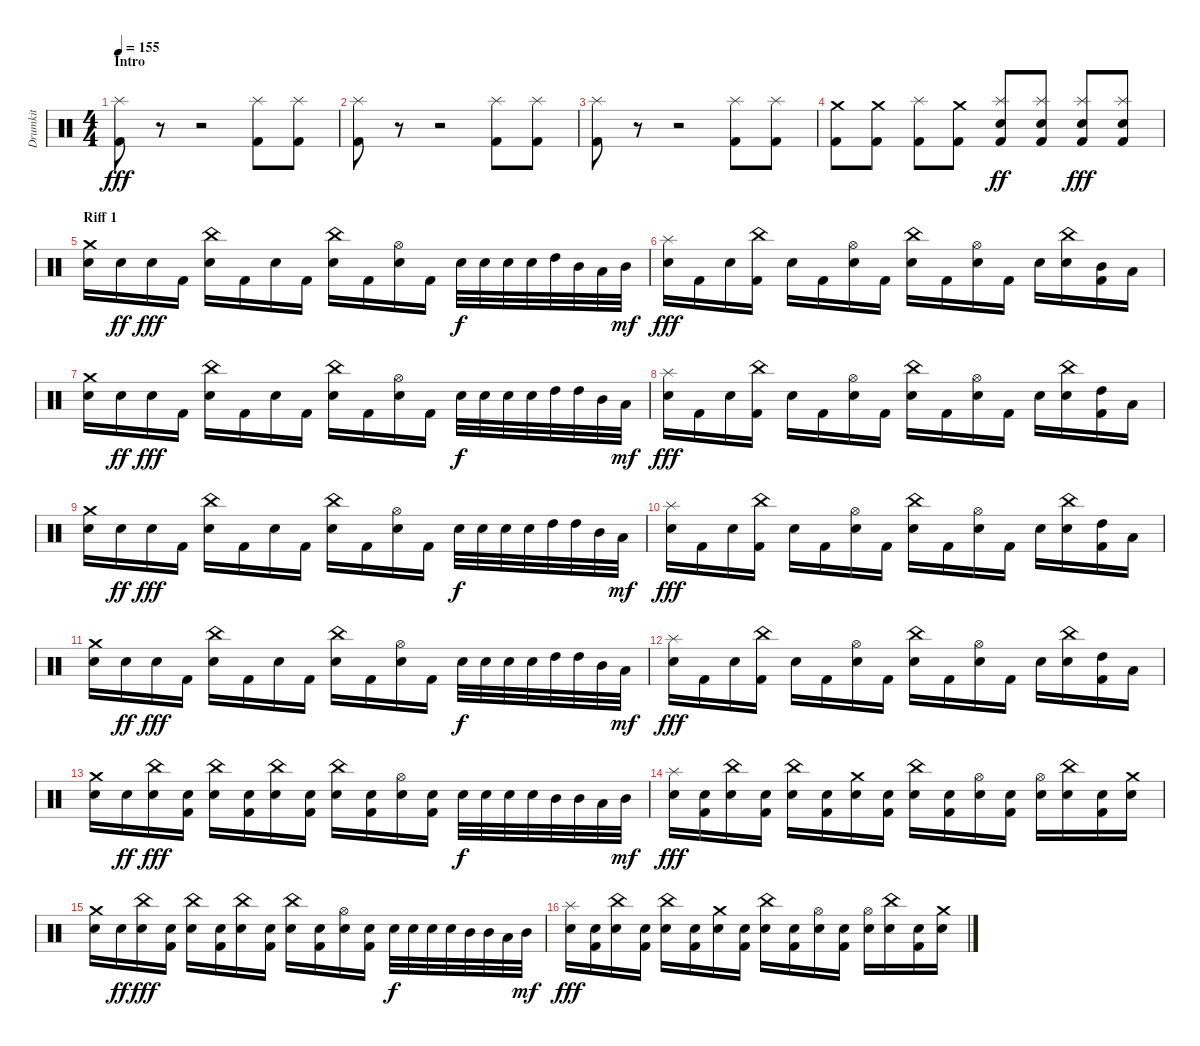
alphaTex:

\track ("Drumkit" "Drumkit") {instrument percussion}
\staff {score}
\articulation defaults
\ts (4 4)
\section ("" "Intro")
\tempo 155
\clef neutral
\ks c
("Kick (hit) 2" "Splash (hit)").8{dy fff} r.8 r.2 ("Kick (hit) 2" "Splash (hit)").8 ("Kick (hit) 2" "Splash (hit)").8 |
("Kick (hit) 2" "Splash (hit)").8 r.8 r.2 ("Kick (hit) 2" "Splash (hit)").8 ("Kick (hit) 2" "Splash (hit)").8 |
("Kick (hit) 2" "Splash (hit)").8 r.8 r.2 ("Kick (hit) 2" "Splash (hit)").8 ("Kick (hit) 2" "Splash (hit)").8 |
("Kick (hit) 2" "Crash medium (hit)").8 ("Kick (hit) 2" "Crash medium (hit)").8 ("Kick (hit) 2" "Splash (hit)").8 ("Kick (hit) 2" "Crash medium (hit)").8 ("Kick (hit) 2" "Snare (hit) 2" "Splash (hit)").8{dy ff} ("Kick (hit) 2" "Snare (hit) 2" "Splash (hit)").8 ("Kick (hit) 2" "Snare (hit) 2" "Splash (hit)").8{dy fff} ("Kick (hit) 2" "Snare (hit) 2" "Splash (hit)").8 |
\section ("" "Riff 1")
("Snare (hit) 2" "Crash medium (hit)").16 "Snare (hit) 2".16{dy ff} "Snare (hit) 2".16{dy fff} "Kick (hit) 2".16 ("Snare (hit) 2" "China (hit)").16 "Kick (hit) 2".16 "Snare (hit) 2".16 "Kick (hit) 2".16 ("Snare (hit) 2" "China (hit)").16 "Kick (hit) 2".16 ("Snare (hit) 2" "Hi-Hat (open)").16 "Kick (hit) 2".16 "Snare (hit) 2".32{dy f} "Snare (hit) 2".32 "Snare (hit) 2".32 "Snare (hit) 2".32 "High Tom (hit)".32 "Mid Tom (hit)".32 "Low Tom (hit)".32 "Mid Tom (hit)".32{dy mf} |
("Snare (hit) 2" "Splash (hit)").16{dy fff} "Kick (hit) 2".16 "Snare (hit) 2".16 ("Kick (hit) 2" "China (hit)").16 "Snare (hit) 2".16 "Kick (hit) 2".16 ("Snare (hit) 2" "Hi-Hat (open)").16 "Kick (hit) 2".16 ("Snare (hit) 2" "China (hit)").16 "Kick (hit) 2".16 ("Snare (hit) 2" "Hi-Hat (open)").16 "Kick (hit) 2".16 "Snare (hit) 2".16 ("Snare (hit) 2" "China (hit)").16 ("Kick (hit) 2" "Mid Tom (hit)").16 "Low Tom (hit)".16 |
("Snare (hit) 2" "Crash medium (hit)").16 "Snare (hit) 2".16{dy ff} "Snare (hit) 2".16{dy fff} "Kick (hit) 2".16 ("Snare (hit) 2" "China (hit)").16 "Kick (hit) 2".16 "Snare (hit) 2".16 "Kick (hit) 2".16 ("Snare (hit) 2" "China (hit)").16 "Kick (hit) 2".16 ("Snare (hit) 2" "Hi-Hat (open)").16 "Kick (hit) 2".16 "Snare (hit) 2".32{dy f} "Snare (hit) 2".32 "Snare (hit) 2".32 "Snare (hit) 2".32 "High Tom (hit)".32 "High Tom (hit)".32 "Mid Tom (hit)".32 "Low Tom (hit)".32{dy mf} |
("Snare (hit) 2" "Splash (hit)").16{dy fff} "Kick (hit) 2".16 "Snare (hit) 2".16 ("Kick (hit) 2" "China (hit)").16 "Snare (hit) 2".16 "Kick (hit) 2".16 ("Snare (hit) 2" "Hi-Hat (open)").16 "Kick (hit) 2".16 ("Snare (hit) 2" "China (hit)").16 "Kick (hit) 2".16 ("Snare (hit) 2" "Hi-Hat (open)").16 "Kick (hit) 2".16 "Snare (hit) 2".16 ("Snare (hit) 2" "China (hit)").16 ("Kick (hit) 2" "High Tom (hit)").16 "Low Tom (hit)".16 |
("Snare (hit) 2" "Crash medium (hit)").16 "Snare (hit) 2".16{dy ff} "Snare (hit) 2".16{dy fff} "Kick (hit) 2".16 ("Snare (hit) 2" "China (hit)").16 "Kick (hit) 2".16 "Snare (hit) 2".16 "Kick (hit) 2".16 ("Snare (hit) 2" "China (hit)").16 "Kick (hit) 2".16 ("Snare (hit) 2" "Hi-Hat (open)").16 "Kick (hit) 2".16 "Snare (hit) 2".32{dy f} "Snare (hit) 2".32 "Snare (hit) 2".32 "Snare (hit) 2".32 "High Tom (hit)".32 "High Tom (hit)".32 "Mid Tom (hit)".32 "Low Tom (hit)".32{dy mf} |
("Snare (hit) 2" "Splash (hit)").16{dy fff} "Kick (hit) 2".16 "Snare (hit) 2".16 ("Kick (hit) 2" "China (hit)").16 "Snare (hit) 2".16 "Kick (hit) 2".16 ("Snare (hit) 2" "Hi-Hat (open)").16 "Kick (hit) 2".16 ("Snare (hit) 2" "China (hit)").16 "Kick (hit) 2".16 ("Snare (hit) 2" "Hi-Hat (open)").16 "Kick (hit) 2".16 "Snare (hit) 2".16 ("Snare (hit) 2" "China (hit)").16 ("Kick (hit) 2" "High Tom (hit)").16 "Low Tom (hit)".16 |
("Snare (hit) 2" "Crash medium (hit)").16 "Snare (hit) 2".16{dy ff} "Snare (hit) 2".16{dy fff} "Kick (hit) 2".16 ("Snare (hit) 2" "China (hit)").16 "Kick (hit) 2".16 "Snare (hit) 2".16 "Kick (hit) 2".16 ("Snare (hit) 2" "China (hit)").16 "Kick (hit) 2".16 ("Snare (hit) 2" "Hi-Hat (open)").16 "Kick (hit) 2".16 "Snare (hit) 2".32{dy f} "Snare (hit) 2".32 "Snare (hit) 2".32 "Snare (hit) 2".32 "High Tom (hit)".32 "High Tom (hit)".32 "Mid Tom (hit)".32 "Low Tom (hit)".32{dy mf} |
("Snare (hit) 2" "Splash (hit)").16{dy fff} "Kick (hit) 2".16 "Snare (hit) 2".16 ("Kick (hit) 2" "China (hit)").16 "Snare (hit) 2".16 "Kick (hit) 2".16 ("Snare (hit) 2" "Hi-Hat (open)").16 "Kick (hit) 2".16 ("Snare (hit) 2" "China (hit)").16 "Kick (hit) 2".16 ("Snare (hit) 2" "Hi-Hat (open)").16 "Kick (hit) 2".16 "Snare (hit) 2".16 ("Snare (hit) 2" "China (hit)").16 ("Kick (hit) 2" "High Tom (hit)").16 "Low Tom (hit)".16 |
("Snare (hit) 2" "Crash medium (hit)").16 "Snare (hit) 2".16{dy ff} ("Snare (hit) 2" "China (hit)").16{dy fff} ("Kick (hit) 2" "Snare (hit) 2").16 ("Snare (hit) 2" "China (hit)").16 ("Kick (hit) 2" "Snare (hit) 2").16 ("Snare (hit) 2" "China (hit)").16 ("Kick (hit) 2" "Snare (hit) 2").16 ("Snare (hit) 2" "China (hit)").16 ("Kick (hit) 2" "Snare (hit) 2").16 ("Snare (hit) 2" "Hi-Hat (open)").16 ("Kick (hit) 2" "Snare (hit) 2").16 "Snare (hit) 2".32{dy f} "Snare (hit) 2".32 "Snare (hit) 2".32 "Snare (hit) 2".32 "Mid Tom (hit)".32 "Mid Tom (hit)".32 "Low Tom (hit)".32 "Mid Tom (hit)".32{dy mf} |
("Snare (hit) 2" "Splash (hit)").16{dy fff} ("Kick (hit) 2" "Snare (hit) 2").16 ("Snare (hit) 2" "China (hit)").16 ("Kick (hit) 2" "Snare (hit) 2").16 ("Snare (hit) 2" "China (hit)").16 ("Kick (hit) 2" "Snare (hit) 2").16 ("Snare (hit) 2" "Crash medium (hit)").16 ("Kick (hit) 2" "Snare (hit) 2").16 ("Snare (hit) 2" "China (hit)").16 ("Kick (hit) 2" "Snare (hit) 2").16 ("Snare (hit) 2" "Hi-Hat (open)").16 ("Kick (hit) 2" "Snare (hit) 2").16 ("Snare (hit) 2" "Hi-Hat (open)").16 ("Snare (hit) 2" "China (hit)").16 ("Kick (hit) 2" "Snare (hit) 2").16 ("Snare (hit) 2" "Crash medium (hit)").16 |
("Snare (hit) 2" "Crash medium (hit)").16 "Snare (hit) 2".16{dy ff} ("Snare (hit) 2" "China (hit)").16{dy fff} ("Kick (hit) 2" "Snare (hit) 2").16 ("Snare (hit) 2" "China (hit)").16 ("Kick (hit) 2" "Snare (hit) 2").16 ("Snare (hit) 2" "China (hit)").16 ("Kick (hit) 2" "Snare (hit) 2").16 ("Snare (hit) 2" "China (hit)").16 ("Kick (hit) 2" "Snare (hit) 2").16 ("Snare (hit) 2" "Hi-Hat (open)").16 ("Kick (hit) 2" "Snare (hit) 2").16 "Snare (hit) 2".32{dy f} "Snare (hit) 2".32 "Snare (hit) 2".32 "Snare (hit) 2".32 "Mid Tom (hit)".32 "Mid Tom (hit)".32 "Low Tom (hit)".32 "Mid Tom (hit)".32{dy mf} |
("Snare (hit) 2" "Splash (hit)").16{dy fff} ("Kick (hit) 2" "Snare (hit) 2").16 ("Snare (hit) 2" "China (hit)").16 ("Kick (hit) 2" "Snare (hit) 2").16 ("Snare (hit) 2" "China (hit)").16 ("Kick (hit) 2" "Snare (hit) 2").16 ("Snare (hit) 2" "Crash medium (hit)").16 ("Kick (hit) 2" "Snare (hit) 2").16 ("Snare (hit) 2" "China (hit)").16 ("Kick (hit) 2" "Snare (hit) 2").16 ("Snare (hit) 2" "Hi-Hat (open)").16 ("Kick (hit) 2" "Snare (hit) 2").16 ("Snare (hit) 2" "Hi-Hat (open)").16 ("Snare (hit) 2" "China (hit)").16 ("Kick (hit) 2" "Snare (hit) 2").16 ("Snare (hit) 2" "Crash medium (hit)").16
